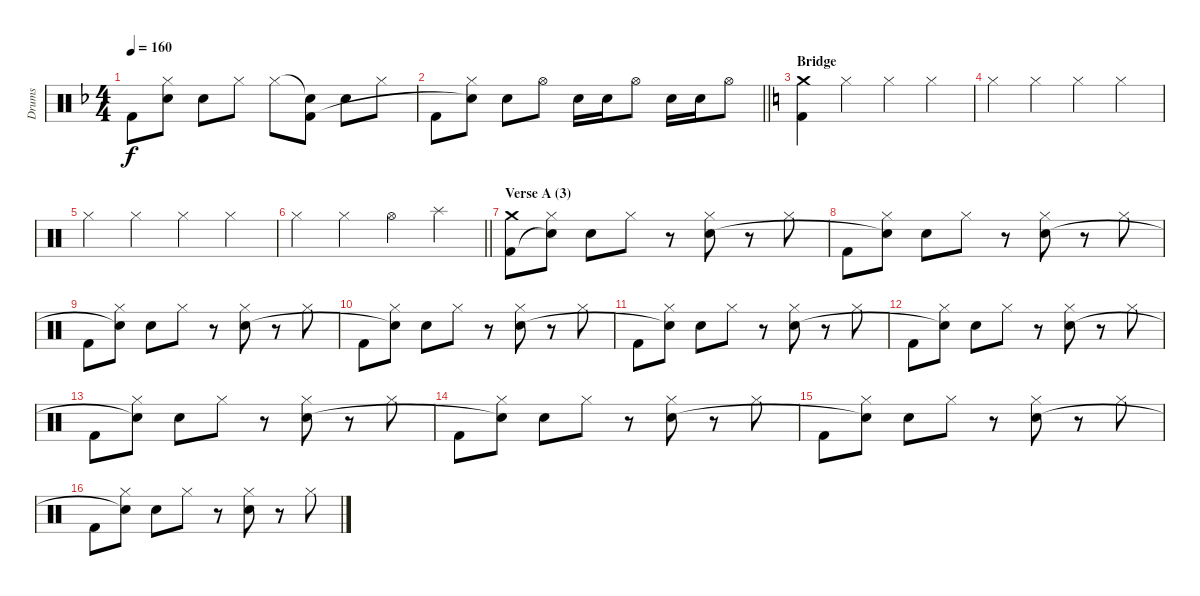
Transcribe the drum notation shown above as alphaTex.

\track ("Drums" "Drums") {instrument percussion}
\staff {score}
\articulation defaults
\ts (4 4)
\tempo 160
\clef neutral
\ks f "Kick (hit) 2".8{dy f}
("Hi-Hat (closed)" "Snare (hit)"{t}).8 "Electric Snare (hit)".8 "Hi-Hat (closed)".8 "Hi-Hat (closed)".8 ("Snare (hit)"{t} "Kick (hit) 2").8 "Electric Snare (hit)".8 "Hi-Hat (closed)".8 |
\barLineRight lightlight "Kick (hit) 2".8
("Hi-Hat (closed)" "Snare (hit)"{t}).8 "Electric Snare (hit)".8 "Hi-Hat (open)".8 "Electric Snare (hit)".16 "Electric Snare (hit)".16 "Hi-Hat (open)".8 "Electric Snare (hit)".16 "Electric Snare (hit)".16 "Hi-Hat (open)".8 |
\section ("" "Bridge")
\ks c
("Crash medium (hit)" "Kick (hit) 2").4 "Hi-Hat (closed)".4 "Hi-Hat (closed)".4 "Hi-Hat (closed)".4 |
"Hi-Hat (closed)".4 "Hi-Hat (closed)".4 "Hi-Hat (closed)".4 "Hi-Hat (closed)".4 |
"Hi-Hat (closed)".4 "Hi-Hat (closed)".4 "Hi-Hat (closed)".4 "Hi-Hat (closed)".4 |
\barLineRight lightlight "Hi-Hat (closed)".4 "Hi-Hat (closed)".4 "Hi-Hat (open)".4 "Splash (hit)".4
|
\section ("" "Verse A (3)")
("Crash medium (hit)" "Kick (hit) 2").8 ("Hi-Hat (closed)" "Snare (hit)"{t}).8 "Electric Snare (hit)".8 "Hi-Hat (closed)".8 r.8 ("Hi-Hat (closed)" "Electric Snare (hit)").8 r.8 "Hi-Hat (closed)".8 |
"Kick (hit) 2".8 ("Hi-Hat (closed)" "Snare (hit)"{t}).8 "Electric Snare (hit)".8 "Hi-Hat (closed)".8 r.8 ("Hi-Hat (closed)" "Electric Snare (hit)").8 r.8 "Hi-Hat (closed)".8 |
"Kick (hit) 2".8 ("Hi-Hat (closed)" "Snare (hit)"{t}).8 "Electric Snare (hit)".8 "Hi-Hat (closed)".8 r.8 ("Hi-Hat (closed)" "Electric Snare (hit)").8 r.8 "Hi-Hat (closed)".8 |
"Kick (hit) 2".8 ("Hi-Hat (closed)" "Snare (hit)"{t}).8 "Electric Snare (hit)".8 "Hi-Hat (closed)".8 r.8 ("Hi-Hat (closed)" "Electric Snare (hit)").8 r.8 "Hi-Hat (closed)".8 |
"Kick (hit) 2".8 ("Hi-Hat (closed)" "Snare (hit)"{t}).8 "Electric Snare (hit)".8 "Hi-Hat (closed)".8 r.8 ("Hi-Hat (closed)" "Electric Snare (hit)").8 r.8 "Hi-Hat (closed)".8 |
"Kick (hit) 2".8 ("Hi-Hat (closed)" "Snare (hit)"{t}).8 "Electric Snare (hit)".8 "Hi-Hat (closed)".8 r.8 ("Hi-Hat (closed)" "Electric Snare (hit)").8 r.8 "Hi-Hat (closed)".8 |
"Kick (hit) 2".8 ("Hi-Hat (closed)" "Snare (hit)"{t}).8 "Electric Snare (hit)".8 "Hi-Hat (closed)".8 r.8 ("Hi-Hat (closed)" "Electric Snare (hit)").8 r.8 "Hi-Hat (closed)".8 |
"Kick (hit) 2".8 ("Hi-Hat (closed)" "Snare (hit)"{t}).8 "Electric Snare (hit)".8 "Hi-Hat (closed)".8 r.8 ("Hi-Hat (closed)" "Electric Snare (hit)").8 r.8 "Hi-Hat (closed)".8 |
"Kick (hit) 2".8 ("Hi-Hat (closed)" "Snare (hit)"{t}).8 "Electric Snare (hit)".8 "Hi-Hat (closed)".8 r.8 ("Hi-Hat (closed)" "Electric Snare (hit)").8 r.8 "Hi-Hat (closed)".8 |
"Kick (hit) 2".8 ("Hi-Hat (closed)" "Snare (hit)"{t}).8 "Electric Snare (hit)".8 "Hi-Hat (closed)".8 r.8 ("Hi-Hat (closed)" "Electric Snare (hit)").8 r.8 "Hi-Hat (closed)".8
